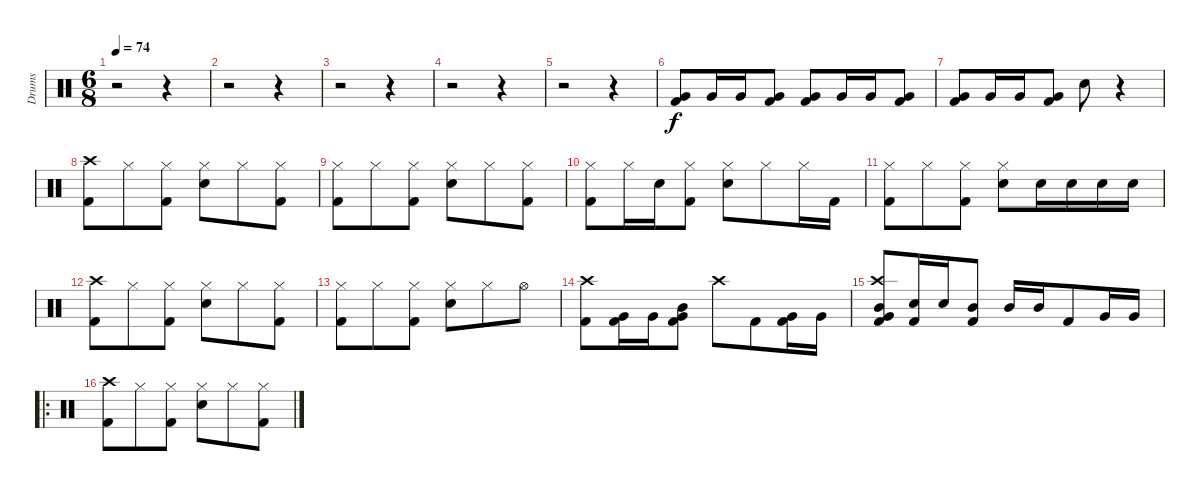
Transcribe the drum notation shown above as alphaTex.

\track ("Drums" "Drums") {instrument percussion}
\staff {score}
\articulation defaults
\ts (6 8)
\tempo 74
\clef neutral
\ks c
r.2{dy f} r.4 |
r.2 r.4 |
r.2 r.4 |
r.2 r.4 |
r.2 r.4 |
("Very Low Tom (hit)" "Kick (hit) 2").8 "Very Low Tom (hit)".16 "Very Low Tom (hit)".16 ("Very Low Tom (hit)" "Kick (hit) 2").8 ("Very Low Tom (hit)" "Kick (hit) 2").8 "Very Low Tom (hit)".16 "Very Low Tom (hit)".16 ("Very Low Tom (hit)" "Kick (hit) 2").8 |
("Very Low Tom (hit)" "Kick (hit) 2").8 "Very Low Tom (hit)".16 "Very Low Tom (hit)".16 ("Very Low Tom (hit)" "Kick (hit) 2").8 "Electric Snare (hit)".8 r.4 |
("Crash high (hit)" "Kick (hit) 2").8 "Hi-Hat (closed)".8 ("Hi-Hat (closed)" "Kick (hit) 2").8 ("Hi-Hat (closed)" "Electric Snare (hit)").8 "Hi-Hat (closed)".8 ("Hi-Hat (closed)" "Kick (hit) 2").8 |
("Hi-Hat (closed)" "Kick (hit) 2").8 "Hi-Hat (closed)".8 ("Hi-Hat (closed)" "Kick (hit) 2").8 ("Hi-Hat (closed)" "Electric Snare (hit)").8 "Hi-Hat (closed)".8 ("Hi-Hat (closed)" "Kick (hit) 2").8 |
("Hi-Hat (closed)" "Kick (hit) 2").8 "Hi-Hat (closed)".16 "Electric Snare (hit)".16 ("Hi-Hat (closed)" "Kick (hit) 2").8 ("Hi-Hat (closed)" "Electric Snare (hit)").8 "Hi-Hat (closed)".8 "Hi-Hat (closed)".16 "Kick (hit) 2".16 |
("Hi-Hat (closed)" "Kick (hit) 2").8 "Hi-Hat (closed)".8 ("Hi-Hat (closed)" "Kick (hit) 2").8 ("Hi-Hat (closed)" "Electric Snare (hit)").8 "Electric Snare (hit)".16 "Electric Snare (hit)".16 "Electric Snare (hit)".16 "Electric Snare (hit)".16 |
("Crash high (hit)" "Kick (hit) 2").8 "Hi-Hat (closed)".8 ("Hi-Hat (closed)" "Kick (hit) 2").8 ("Hi-Hat (closed)" "Electric Snare (hit)").8 "Hi-Hat (closed)".8 ("Hi-Hat (closed)" "Kick (hit) 2").8 |
("Hi-Hat (closed)" "Kick (hit) 2").8 "Hi-Hat (closed)".8 ("Hi-Hat (closed)" "Kick (hit) 2").8 ("Hi-Hat (closed)" "Electric Snare (hit)").8 "Hi-Hat (closed)".8 "Hi-Hat (open)".8 |
("Crash high (hit)" "Kick (hit) 2").8 ("Very Low Tom (hit)" "Kick (hit) 2").16 "Very Low Tom (hit)".16 ("Mid Tom (hit)" "Very Low Tom (hit)" "Kick (hit) 2").8 "Crash high (hit)".8 "Kick (hit) 2".8 ("Very Low Tom (hit)" "Kick (hit) 2").16 "Very Low Tom (hit)".16 |
("Crash high (hit)" "Mid Tom (hit)" "Very Low Tom (hit)" "Kick (hit) 2").8 ("Electric Snare (hit)" "Kick (hit) 2").16 "Electric Snare (hit)".16 ("Mid Tom (hit)" "Kick (hit) 2").8 "Mid Tom (hit)".16 "Mid Tom (hit)".16 "Kick (hit) 2".8 "Very Low Tom (hit)".16 "Very Low Tom (hit)".16 |
\ro
("Crash high (hit)" "Kick (hit) 2").8 "Hi-Hat (closed)".8 ("Hi-Hat (closed)" "Kick (hit) 2").8 ("Hi-Hat (closed)" "Electric Snare (hit)").8 "Hi-Hat (closed)".8 ("Hi-Hat (closed)" "Kick (hit) 2").8
